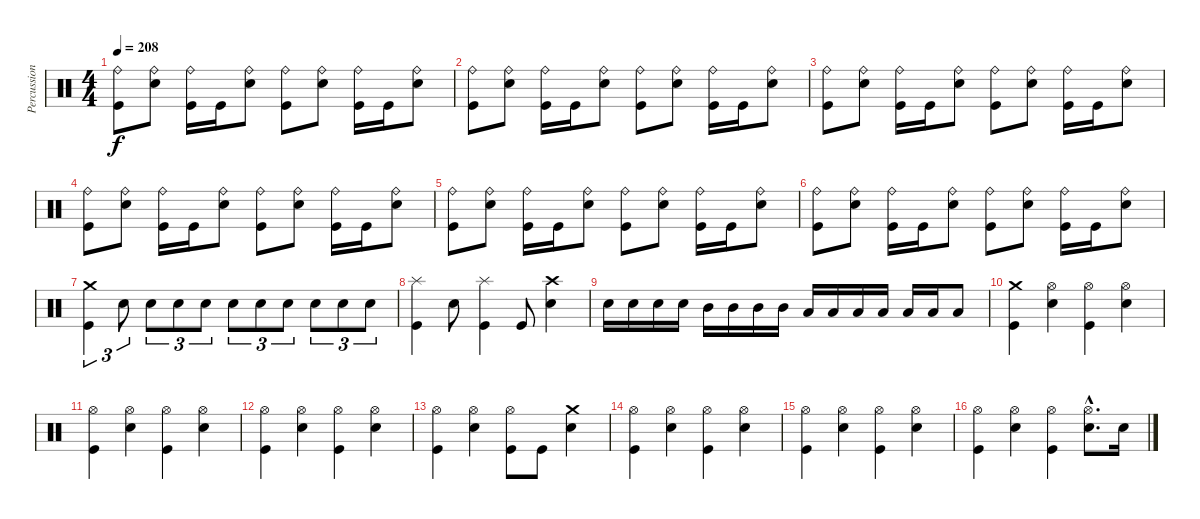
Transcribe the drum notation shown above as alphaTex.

\track ("Percussions" "Percussion") {instrument percussion}
\staff {score}
\articulation defaults
\ts (4 4)
\tempo 208
\clef neutral
\ks c
("Kick (hit)" "Ride (bell)").8{dy f} ("Electric Snare (hit)" "Ride (bell)").8 ("Kick (hit)" "Ride (bell)").16 "Kick (hit)".16 ("Electric Snare (hit)" "Ride (bell)").8 ("Kick (hit)" "Ride (bell)").8 ("Electric Snare (hit)" "Ride (bell)").8 ("Kick (hit)" "Ride (bell)").16 "Kick (hit)".16 ("Electric Snare (hit)" "Ride (bell)").8 |
("Kick (hit)" "Ride (bell)").8 ("Electric Snare (hit)" "Ride (bell)").8 ("Kick (hit)" "Ride (bell)").16 "Kick (hit)".16 ("Electric Snare (hit)" "Ride (bell)").8 ("Kick (hit)" "Ride (bell)").8 ("Electric Snare (hit)" "Ride (bell)").8 ("Kick (hit)" "Ride (bell)").16 "Kick (hit)".16 ("Electric Snare (hit)" "Ride (bell)").8 |
("Kick (hit)" "Ride (bell)").8 ("Electric Snare (hit)" "Ride (bell)").8 ("Kick (hit)" "Ride (bell)").16 "Kick (hit)".16 ("Electric Snare (hit)" "Ride (bell)").8 ("Kick (hit)" "Ride (bell)").8 ("Electric Snare (hit)" "Ride (bell)").8 ("Kick (hit)" "Ride (bell)").16 "Kick (hit)".16 ("Electric Snare (hit)" "Ride (bell)").8 |
("Kick (hit)" "Ride (bell)").8 ("Electric Snare (hit)" "Ride (bell)").8 ("Kick (hit)" "Ride (bell)").16 "Kick (hit)".16 ("Electric Snare (hit)" "Ride (bell)").8 ("Kick (hit)" "Ride (bell)").8 ("Electric Snare (hit)" "Ride (bell)").8 ("Kick (hit)" "Ride (bell)").16 "Kick (hit)".16 ("Electric Snare (hit)" "Ride (bell)").8 |
("Kick (hit)" "Ride (bell)").8 ("Electric Snare (hit)" "Ride (bell)").8 ("Kick (hit)" "Ride (bell)").16 "Kick (hit)".16 ("Electric Snare (hit)" "Ride (bell)").8 ("Kick (hit)" "Ride (bell)").8 ("Electric Snare (hit)" "Ride (bell)").8 ("Kick (hit)" "Ride (bell)").16 "Kick (hit)".16 ("Electric Snare (hit)" "Ride (bell)").8 |
("Kick (hit)" "Ride (bell)").8 ("Electric Snare (hit)" "Ride (bell)").8 ("Kick (hit)" "Ride (bell)").16 "Kick (hit)".16 ("Electric Snare (hit)" "Ride (bell)").8 ("Kick (hit)" "Ride (bell)").8 ("Electric Snare (hit)" "Ride (bell)").8 ("Kick (hit)" "Ride (bell)").16 "Kick (hit)".16 ("Electric Snare (hit)" "Ride (bell)").8 |
("Kick (hit)" "Crash medium (hit)").4{tu (3 2)} "Electric Snare (hit)".8{tu (3 2)} "Electric Snare (hit)".8{tu (3 2)} "Electric Snare (hit)".8{tu (3 2)} "Electric Snare (hit)".8{tu (3 2)} "Electric Snare (hit)".8{tu (3 2)} "Electric Snare (hit)".8{tu (3 2)} "Electric Snare (hit)".8{tu (3 2)} "Electric Snare (hit)".8{tu (3 2)} "Electric Snare (hit)".8{tu (3 2)} "Electric Snare (hit)".8{tu (3 2)} |
("Kick (hit)" "Splash (hit)").4 "Electric Snare (hit)".8 ("Kick (hit)" "Splash (hit)").4 "Kick (hit)".8 ("Electric Snare (hit)" "Crash high (hit)").4 |
"Electric Snare (hit)".16 "Electric Snare (hit)".16 "Electric Snare (hit)".16 "Electric Snare (hit)".16 "Mid Tom (hit)".16 "Mid Tom (hit)".16 "Mid Tom (hit)".16 "Mid Tom (hit)".16 "Low Tom (hit)".16 "Low Tom (hit)".16 "Low Tom (hit)".16 "Low Tom (hit)".16 "Low Floor Tom (hit)".16 "Low Floor Tom (hit)".16 "Low Floor Tom (hit)".8 |
("Kick (hit)" "Crash medium (hit)").4 ("Electric Snare (hit)" "Hi-Hat (open)").4 ("Kick (hit)" "Hi-Hat (open)").4 ("Electric Snare (hit)" "Hi-Hat (open)").4 |
("Kick (hit)" "Hi-Hat (open)").4 ("Electric Snare (hit)" "Hi-Hat (open)").4 ("Kick (hit)" "Hi-Hat (open)").4 ("Electric Snare (hit)" "Hi-Hat (open)").4 |
("Kick (hit)" "Hi-Hat (open)").4 ("Electric Snare (hit)" "Hi-Hat (open)").4 ("Kick (hit)" "Hi-Hat (open)").4 ("Electric Snare (hit)" "Hi-Hat (open)").4 |
("Kick (hit)" "Hi-Hat (open)").4 ("Electric Snare (hit)" "Hi-Hat (open)").4 ("Kick (hit)" "Hi-Hat (open)").8 "Kick (hit)".8 ("Electric Snare (hit)" "Crash medium (hit)").4 |
("Kick (hit)" "Hi-Hat (open)").4 ("Electric Snare (hit)" "Hi-Hat (open)").4 ("Kick (hit)" "Hi-Hat (open)").4 ("Electric Snare (hit)" "Hi-Hat (open)").4 |
("Kick (hit)" "Hi-Hat (open)").4 ("Electric Snare (hit)" "Hi-Hat (open)").4 ("Kick (hit)" "Hi-Hat (open)").4 ("Electric Snare (hit)" "Hi-Hat (open)").4 |
("Kick (hit)" "Hi-Hat (open)").4 ("Electric Snare (hit)" "Hi-Hat (open)").4 ("Kick (hit)" "Hi-Hat (open)").4 ("Electric Snare (hit)"{hac} "Hi-Hat (open)"{hac}).8{d} "Electric Snare (hit)".16
